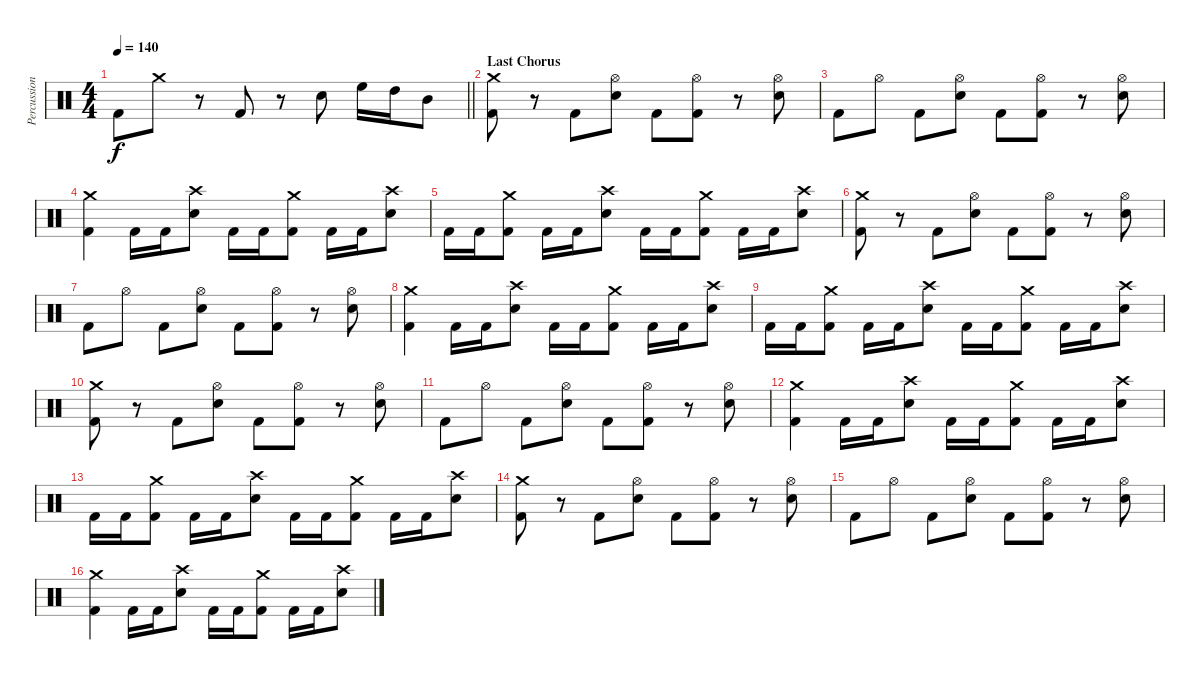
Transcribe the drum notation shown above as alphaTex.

\track ("Percussion" "Percussion") {instrument percussion}
\staff {score}
\articulation defaults
\ts (4 4)
\tempo 140
\clef neutral
\barLineRight lightlight
\ks c "Kick (hit) 2".8{dy f} "Crash medium (hit)".8
r.8 "Kick (hit) 2".8 r.8 "Electric Snare (hit)".8 "High Floor Tom (hit)".16 "High Tom (hit)".16 "Mid Tom (hit)".8 |
\section ("" "Last Chorus")
("Crash medium (hit)" "Kick (hit) 2").8 r.8 "Kick (hit) 2".8 ("Hi-Hat (open)" "Electric Snare (hit)").8 "Kick (hit) 2".8 ("Hi-Hat (open)" "Kick (hit) 2").8 r.8 ("Hi-Hat (open)" "Electric Snare (hit)").8 |
"Kick (hit) 2".8 "Hi-Hat (open)".8 "Kick (hit) 2".8 ("Hi-Hat (open)" "Electric Snare (hit)").8 "Kick (hit) 2".8 ("Hi-Hat (open)" "Kick (hit) 2").8 r.8 ("Hi-Hat (open)" "Electric Snare (hit)").8 |
("Crash medium (hit)" "Kick (hit) 2").4 "Kick (hit) 2".16 "Kick (hit) 2".16 ("Crash high (hit)" "Electric Snare (hit)").8 "Kick (hit) 2".16 "Kick (hit) 2".16 ("Crash medium (hit)" "Kick (hit) 2").8 "Kick (hit) 2".16 "Kick (hit) 2".16 ("Crash high (hit)" "Electric Snare (hit)").8 |
"Kick (hit) 2".16 "Kick (hit) 2".16 ("Crash medium (hit)" "Kick (hit) 2").8 "Kick (hit) 2".16 "Kick (hit) 2".16 ("Crash high (hit)" "Electric Snare (hit)").8 "Kick (hit) 2".16 "Kick (hit) 2".16 ("Crash medium (hit)" "Kick (hit) 2").8 "Kick (hit) 2".16 "Kick (hit) 2".16 ("Crash high (hit)" "Electric Snare (hit)").8 |
("Crash medium (hit)" "Kick (hit) 2").8 r.8 "Kick (hit) 2".8 ("Hi-Hat (open)" "Electric Snare (hit)").8 "Kick (hit) 2".8 ("Hi-Hat (open)" "Kick (hit) 2").8 r.8 ("Hi-Hat (open)" "Electric Snare (hit)").8 |
"Kick (hit) 2".8 "Hi-Hat (open)".8 "Kick (hit) 2".8 ("Hi-Hat (open)" "Electric Snare (hit)").8 "Kick (hit) 2".8 ("Hi-Hat (open)" "Kick (hit) 2").8 r.8 ("Hi-Hat (open)" "Electric Snare (hit)").8 |
("Crash medium (hit)" "Kick (hit) 2").4 "Kick (hit) 2".16 "Kick (hit) 2".16 ("Crash high (hit)" "Electric Snare (hit)").8 "Kick (hit) 2".16 "Kick (hit) 2".16 ("Crash medium (hit)" "Kick (hit) 2").8 "Kick (hit) 2".16 "Kick (hit) 2".16 ("Crash high (hit)" "Electric Snare (hit)").8 |
"Kick (hit) 2".16 "Kick (hit) 2".16 ("Crash medium (hit)" "Kick (hit) 2").8 "Kick (hit) 2".16 "Kick (hit) 2".16 ("Crash high (hit)" "Electric Snare (hit)").8 "Kick (hit) 2".16 "Kick (hit) 2".16 ("Crash medium (hit)" "Kick (hit) 2").8 "Kick (hit) 2".16 "Kick (hit) 2".16 ("Crash high (hit)" "Electric Snare (hit)").8 |
("Crash medium (hit)" "Kick (hit) 2").8 r.8 "Kick (hit) 2".8 ("Hi-Hat (open)" "Electric Snare (hit)").8 "Kick (hit) 2".8 ("Hi-Hat (open)" "Kick (hit) 2").8 r.8 ("Hi-Hat (open)" "Electric Snare (hit)").8 |
"Kick (hit) 2".8 "Hi-Hat (open)".8 "Kick (hit) 2".8 ("Hi-Hat (open)" "Electric Snare (hit)").8 "Kick (hit) 2".8 ("Hi-Hat (open)" "Kick (hit) 2").8 r.8 ("Hi-Hat (open)" "Electric Snare (hit)").8 |
("Crash medium (hit)" "Kick (hit) 2").4 "Kick (hit) 2".16 "Kick (hit) 2".16 ("Crash high (hit)" "Electric Snare (hit)").8 "Kick (hit) 2".16 "Kick (hit) 2".16 ("Crash medium (hit)" "Kick (hit) 2").8 "Kick (hit) 2".16 "Kick (hit) 2".16 ("Crash high (hit)" "Electric Snare (hit)").8 |
"Kick (hit) 2".16 "Kick (hit) 2".16 ("Crash medium (hit)" "Kick (hit) 2").8 "Kick (hit) 2".16 "Kick (hit) 2".16 ("Crash high (hit)" "Electric Snare (hit)").8 "Kick (hit) 2".16 "Kick (hit) 2".16 ("Crash medium (hit)" "Kick (hit) 2").8 "Kick (hit) 2".16 "Kick (hit) 2".16 ("Crash high (hit)" "Electric Snare (hit)").8 |
("Crash medium (hit)" "Kick (hit) 2").8 r.8 "Kick (hit) 2".8 ("Hi-Hat (open)" "Electric Snare (hit)").8 "Kick (hit) 2".8 ("Hi-Hat (open)" "Kick (hit) 2").8 r.8 ("Hi-Hat (open)" "Electric Snare (hit)").8 |
"Kick (hit) 2".8 "Hi-Hat (open)".8 "Kick (hit) 2".8 ("Hi-Hat (open)" "Electric Snare (hit)").8 "Kick (hit) 2".8 ("Hi-Hat (open)" "Kick (hit) 2").8 r.8 ("Hi-Hat (open)" "Electric Snare (hit)").8 |
("Crash medium (hit)" "Kick (hit) 2").4 "Kick (hit) 2".16 "Kick (hit) 2".16 ("Crash high (hit)" "Electric Snare (hit)").8 "Kick (hit) 2".16 "Kick (hit) 2".16 ("Crash medium (hit)" "Kick (hit) 2").8 "Kick (hit) 2".16 "Kick (hit) 2".16 ("Crash high (hit)" "Electric Snare (hit)").8
